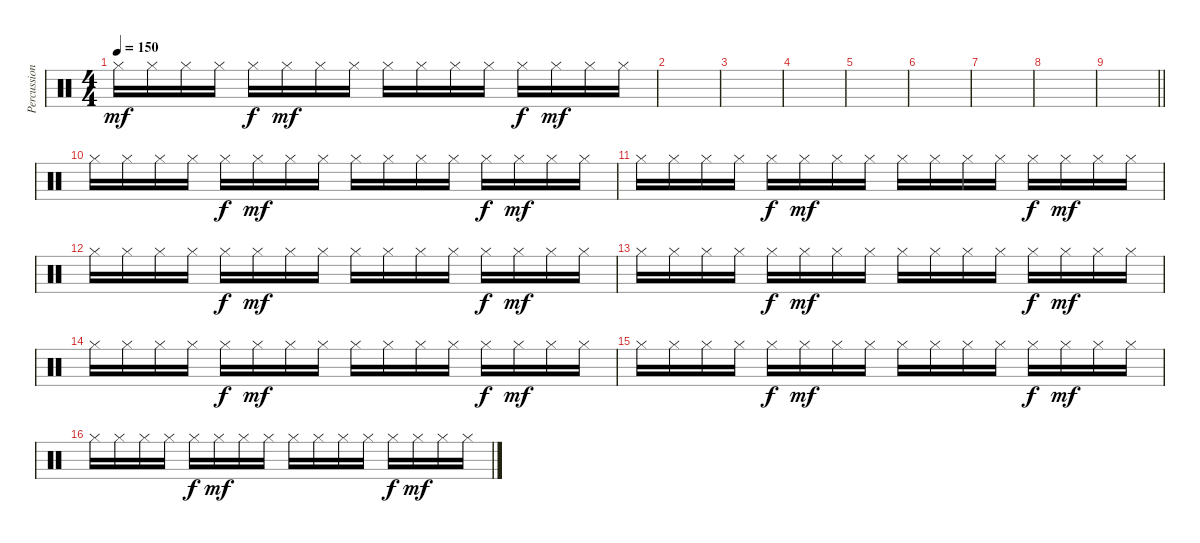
\track ("Percussion 2" "Percussion") {instrument percussion}
\staff {score}
\articulation defaults
\ts (4 4)
\tempo 150
\clef neutral
\ks c "Hi-Hat (closed)".16{dy mf} "Hi-Hat (closed)".16 "Hi-Hat (closed)".16 "Hi-Hat (closed)".16 "Hi-Hat (closed)".16{dy f} "Hi-Hat (closed)".16{dy mf} "Hi-Hat (closed)".16 "Hi-Hat (closed)".16 "Hi-Hat (closed)".16 "Hi-Hat (closed)".16 "Hi-Hat (closed)".16 "Hi-Hat (closed)".16 "Hi-Hat (closed)".16{dy f} "Hi-Hat (closed)".16{dy mf} "Hi-Hat (closed)".16 "Hi-Hat (closed)".16
|
|
|
|
|
|
|
|
\barLineRight lightlight
|
"Hi-Hat (closed)".16 "Hi-Hat (closed)".16 "Hi-Hat (closed)".16 "Hi-Hat (closed)".16 "Hi-Hat (closed)".16{dy f} "Hi-Hat (closed)".16{dy mf} "Hi-Hat (closed)".16 "Hi-Hat (closed)".16 "Hi-Hat (closed)".16 "Hi-Hat (closed)".16 "Hi-Hat (closed)".16 "Hi-Hat (closed)".16 "Hi-Hat (closed)".16{dy f} "Hi-Hat (closed)".16{dy mf} "Hi-Hat (closed)".16 "Hi-Hat (closed)".16 |
"Hi-Hat (closed)".16 "Hi-Hat (closed)".16 "Hi-Hat (closed)".16 "Hi-Hat (closed)".16 "Hi-Hat (closed)".16{dy f} "Hi-Hat (closed)".16{dy mf} "Hi-Hat (closed)".16 "Hi-Hat (closed)".16 "Hi-Hat (closed)".16 "Hi-Hat (closed)".16 "Hi-Hat (closed)".16 "Hi-Hat (closed)".16 "Hi-Hat (closed)".16{dy f} "Hi-Hat (closed)".16{dy mf} "Hi-Hat (closed)".16 "Hi-Hat (closed)".16 |
"Hi-Hat (closed)".16 "Hi-Hat (closed)".16 "Hi-Hat (closed)".16 "Hi-Hat (closed)".16 "Hi-Hat (closed)".16{dy f} "Hi-Hat (closed)".16{dy mf} "Hi-Hat (closed)".16 "Hi-Hat (closed)".16 "Hi-Hat (closed)".16 "Hi-Hat (closed)".16 "Hi-Hat (closed)".16 "Hi-Hat (closed)".16 "Hi-Hat (closed)".16{dy f} "Hi-Hat (closed)".16{dy mf} "Hi-Hat (closed)".16 "Hi-Hat (closed)".16 |
"Hi-Hat (closed)".16 "Hi-Hat (closed)".16 "Hi-Hat (closed)".16 "Hi-Hat (closed)".16 "Hi-Hat (closed)".16{dy f} "Hi-Hat (closed)".16{dy mf} "Hi-Hat (closed)".16 "Hi-Hat (closed)".16 "Hi-Hat (closed)".16 "Hi-Hat (closed)".16 "Hi-Hat (closed)".16 "Hi-Hat (closed)".16 "Hi-Hat (closed)".16{dy f} "Hi-Hat (closed)".16{dy mf} "Hi-Hat (closed)".16 "Hi-Hat (closed)".16 |
"Hi-Hat (closed)".16 "Hi-Hat (closed)".16 "Hi-Hat (closed)".16 "Hi-Hat (closed)".16 "Hi-Hat (closed)".16{dy f} "Hi-Hat (closed)".16{dy mf} "Hi-Hat (closed)".16 "Hi-Hat (closed)".16 "Hi-Hat (closed)".16 "Hi-Hat (closed)".16 "Hi-Hat (closed)".16 "Hi-Hat (closed)".16 "Hi-Hat (closed)".16{dy f} "Hi-Hat (closed)".16{dy mf} "Hi-Hat (closed)".16 "Hi-Hat (closed)".16 |
"Hi-Hat (closed)".16 "Hi-Hat (closed)".16 "Hi-Hat (closed)".16 "Hi-Hat (closed)".16 "Hi-Hat (closed)".16{dy f} "Hi-Hat (closed)".16{dy mf} "Hi-Hat (closed)".16 "Hi-Hat (closed)".16 "Hi-Hat (closed)".16 "Hi-Hat (closed)".16 "Hi-Hat (closed)".16 "Hi-Hat (closed)".16 "Hi-Hat (closed)".16{dy f} "Hi-Hat (closed)".16{dy mf} "Hi-Hat (closed)".16 "Hi-Hat (closed)".16 |
"Hi-Hat (closed)".16 "Hi-Hat (closed)".16 "Hi-Hat (closed)".16 "Hi-Hat (closed)".16 "Hi-Hat (closed)".16{dy f} "Hi-Hat (closed)".16{dy mf} "Hi-Hat (closed)".16 "Hi-Hat (closed)".16 "Hi-Hat (closed)".16 "Hi-Hat (closed)".16 "Hi-Hat (closed)".16 "Hi-Hat (closed)".16 "Hi-Hat (closed)".16{dy f} "Hi-Hat (closed)".16{dy mf} "Hi-Hat (closed)".16 "Hi-Hat (closed)".16
